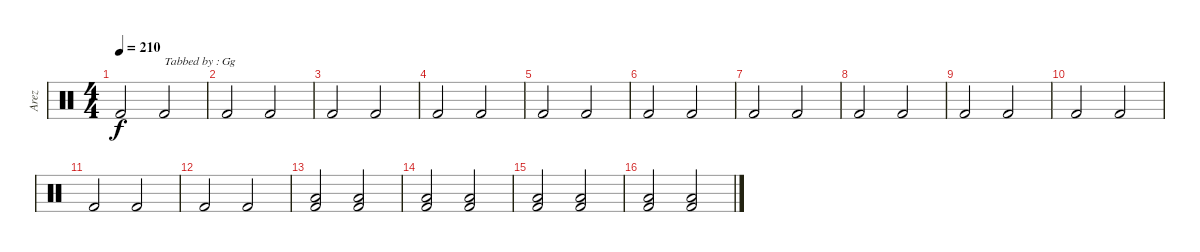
\track ("Arez" "Arez") {instrument percussion}
\staff {score}
\articulation defaults
\ts (4 4)
\tempo 210
\clef neutral
\ks c "Kick (hit) 2".2{dy f} "Kick (hit) 2".2{txt "Tabbed by : Gg"}
|
"Kick (hit) 2".2 "Kick (hit) 2".2 |
"Kick (hit) 2".2 "Kick (hit) 2".2 |
"Kick (hit) 2".2 "Kick (hit) 2".2 |
"Kick (hit) 2".2 "Kick (hit) 2".2 |
"Kick (hit) 2".2 "Kick (hit) 2".2 |
"Kick (hit) 2".2 "Kick (hit) 2".2 |
"Kick (hit) 2".2 "Kick (hit) 2".2 |
"Kick (hit) 2".2 "Kick (hit) 2".2 |
"Kick (hit) 2".2 "Kick (hit) 2".2 |
"Kick (hit) 2".2 "Kick (hit) 2".2 |
"Kick (hit) 2".2 "Kick (hit) 2".2 |
("Kick (hit) 2" "Low Floor Tom (hit)").2 ("Low Floor Tom (hit)" "Kick (hit) 2").2 |
("Kick (hit) 2" "Low Floor Tom (hit)").2 ("Low Floor Tom (hit)" "Kick (hit) 2").2 |
("Kick (hit) 2" "Low Floor Tom (hit)").2 ("Low Floor Tom (hit)" "Kick (hit) 2").2 |
("Kick (hit) 2" "Low Floor Tom (hit)").2 ("Low Floor Tom (hit)" "Kick (hit) 2").2
